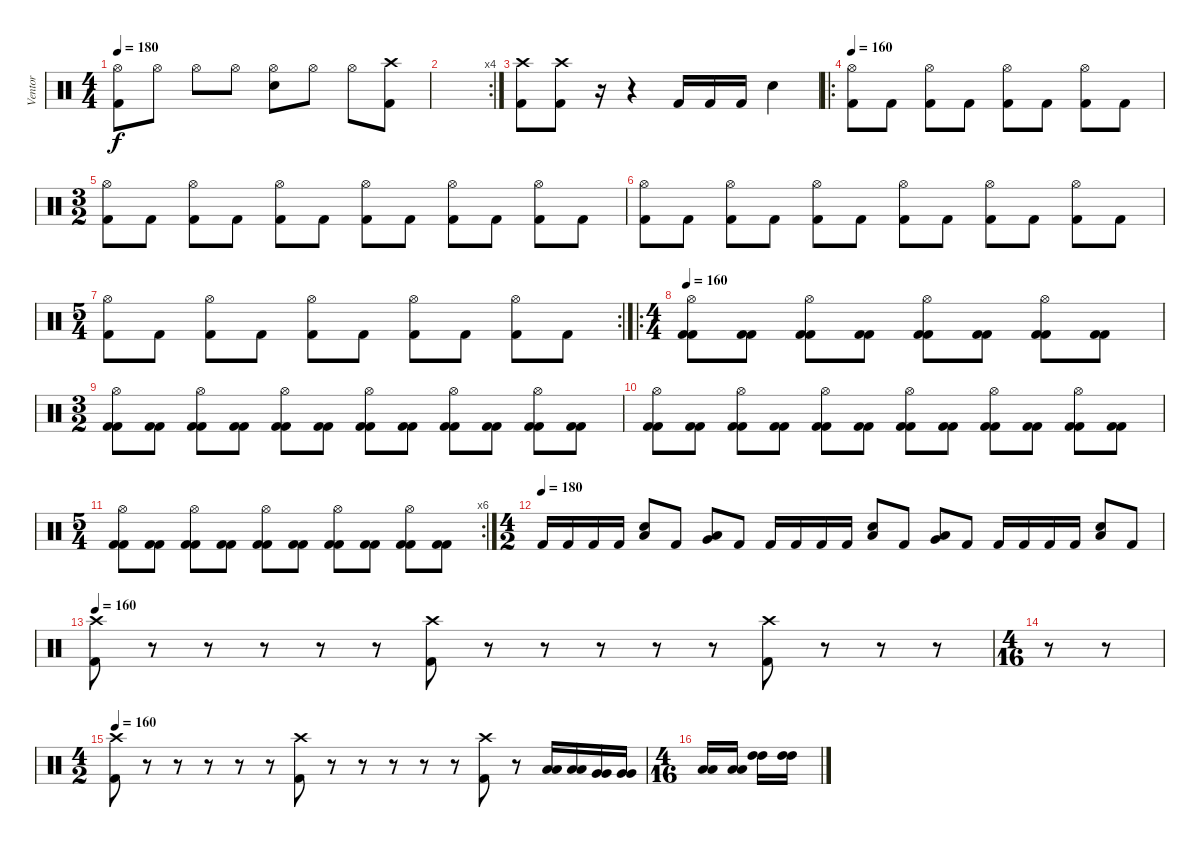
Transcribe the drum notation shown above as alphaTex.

\track ("Ventor" "Ventor") {instrument percussion}
\staff {score}
\articulation defaults
\ts (4 4)
\tempo 180
\clef neutral
\ks c
("Kick (hit) 2" "Hi-Hat (open)").8{dy f} "Hi-Hat (open)".8 "Hi-Hat (open)".8 "Hi-Hat (open)".8 ("Snare (hit) 2" "Hi-Hat (open)").8 "Hi-Hat (open)".8 "Hi-Hat (open)".8 ("Kick (hit) 2" "Crash high (hit)").8 |
\rc 4
|
("Kick (hit) 2" "Crash high (hit)").8 ("Kick (hit) 2" "Crash high (hit)").8 r.16 r.4 "Kick (hit) 2".16 "Kick (hit) 2".16 "Kick (hit) 2".16 "Snare (hit) 2".4 |
\ro
\tempo 160
("Kick (hit) 2" "Hi-Hat (open)").8 "Kick (hit) 2".8 ("Kick (hit) 2" "Hi-Hat (open)").8 "Kick (hit) 2".8 ("Kick (hit) 2" "Hi-Hat (open)").8 "Kick (hit) 2".8 ("Kick (hit) 2" "Hi-Hat (open)").8 "Kick (hit) 2".8 |
\ts (3 2)
("Kick (hit) 2" "Hi-Hat (open)").8 "Kick (hit) 2".8 ("Kick (hit) 2" "Hi-Hat (open)").8 "Kick (hit) 2".8 ("Kick (hit) 2" "Hi-Hat (open)").8 "Kick (hit) 2".8 ("Kick (hit) 2" "Hi-Hat (open)").8 "Kick (hit) 2".8 ("Kick (hit) 2" "Hi-Hat (open)").8 "Kick (hit) 2".8 ("Kick (hit) 2" "Hi-Hat (open)").8 "Kick (hit) 2".8 |
("Kick (hit) 2" "Hi-Hat (open)").8 "Kick (hit) 2".8 ("Kick (hit) 2" "Hi-Hat (open)").8 "Kick (hit) 2".8 ("Kick (hit) 2" "Hi-Hat (open)").8 "Kick (hit) 2".8 ("Kick (hit) 2" "Hi-Hat (open)").8 "Kick (hit) 2".8 ("Kick (hit) 2" "Hi-Hat (open)").8 "Kick (hit) 2".8 ("Kick (hit) 2" "Hi-Hat (open)").8 "Kick (hit) 2".8 |
\rc 2
\ts (5 4)
("Kick (hit) 2" "Hi-Hat (open)").8 "Kick (hit) 2".8 ("Kick (hit) 2" "Hi-Hat (open)").8 "Kick (hit) 2".8 ("Kick (hit) 2" "Hi-Hat (open)").8 "Kick (hit) 2".8 ("Kick (hit) 2" "Hi-Hat (open)").8 "Kick (hit) 2".8 ("Kick (hit) 2" "Hi-Hat (open)").8 "Kick (hit) 2".8 |
\ro
\ts (4 4)
\tempo 160
("Kick (hit) 2" "Kick (hit) 2" "Hi-Hat (open)").8 ("Kick (hit) 2" "Kick (hit) 2").8 ("Kick (hit) 2" "Kick (hit) 2" "Hi-Hat (open)").8 ("Kick (hit) 2" "Kick (hit) 2").8 ("Kick (hit) 2" "Kick (hit) 2" "Hi-Hat (open)").8 ("Kick (hit) 2" "Kick (hit) 2").8 ("Kick (hit) 2" "Kick (hit) 2" "Hi-Hat (open)").8 ("Kick (hit) 2" "Kick (hit) 2").8 |
\ts (3 2)
("Kick (hit) 2" "Kick (hit) 2" "Hi-Hat (open)").8 ("Kick (hit) 2" "Kick (hit) 2").8 ("Kick (hit) 2" "Kick (hit) 2" "Hi-Hat (open)").8 ("Kick (hit) 2" "Kick (hit) 2").8 ("Kick (hit) 2" "Kick (hit) 2" "Hi-Hat (open)").8 ("Kick (hit) 2" "Kick (hit) 2").8 ("Kick (hit) 2" "Kick (hit) 2" "Hi-Hat (open)").8 ("Kick (hit) 2" "Kick (hit) 2").8 ("Kick (hit) 2" "Kick (hit) 2" "Hi-Hat (open)").8 ("Kick (hit) 2" "Kick (hit) 2").8 ("Kick (hit) 2" "Kick (hit) 2" "Hi-Hat (open)").8 ("Kick (hit) 2" "Kick (hit) 2").8 |
("Kick (hit) 2" "Kick (hit) 2" "Hi-Hat (open)").8 ("Kick (hit) 2" "Kick (hit) 2").8 ("Kick (hit) 2" "Kick (hit) 2" "Hi-Hat (open)").8 ("Kick (hit) 2" "Kick (hit) 2").8 ("Kick (hit) 2" "Kick (hit) 2" "Hi-Hat (open)").8 ("Kick (hit) 2" "Kick (hit) 2").8 ("Kick (hit) 2" "Kick (hit) 2" "Hi-Hat (open)").8 ("Kick (hit) 2" "Kick (hit) 2").8 ("Kick (hit) 2" "Kick (hit) 2" "Hi-Hat (open)").8 ("Kick (hit) 2" "Kick (hit) 2").8 ("Kick (hit) 2" "Kick (hit) 2" "Hi-Hat (open)").8 ("Kick (hit) 2" "Kick (hit) 2").8 |
\rc 6
\ts (5 4)
("Kick (hit) 2" "Kick (hit) 2" "Hi-Hat (open)").8 ("Kick (hit) 2" "Kick (hit) 2").8 ("Kick (hit) 2" "Kick (hit) 2" "Hi-Hat (open)").8 ("Kick (hit) 2" "Kick (hit) 2").8 ("Kick (hit) 2" "Kick (hit) 2" "Hi-Hat (open)").8 ("Kick (hit) 2" "Kick (hit) 2").8 ("Kick (hit) 2" "Kick (hit) 2" "Hi-Hat (open)").8 ("Kick (hit) 2" "Kick (hit) 2").8 ("Kick (hit) 2" "Kick (hit) 2" "Hi-Hat (open)").8 ("Kick (hit) 2" "Kick (hit) 2").8 |
\ts (4 2)
\tempo (180)
"Kick (hit) 2".16 "Kick (hit) 2".16 "Kick (hit) 2".16 "Kick (hit) 2".16 ("Low Tom (hit)" "Snare (hit) 2").8 "Kick (hit) 2".8 ("Low Tom (hit)" "Very Low Tom (hit)").8 "Kick (hit) 2".8 "Kick (hit) 2".16 "Kick (hit) 2".16 "Kick (hit) 2".16 "Kick (hit) 2".16 ("Low Tom (hit)" "Snare (hit) 2").8 "Kick (hit) 2".8 ("Low Tom (hit)" "Very Low Tom (hit)").8 "Kick (hit) 2".8 "Kick (hit) 2".16 "Kick (hit) 2".16 "Kick (hit) 2".16 "Kick (hit) 2".16 ("Low Tom (hit)" "Snare (hit) 2").8 "Kick (hit) 2".8 |
\tempo 160
("Kick (hit) 2" "Crash high (hit)").8 r.8 r.8 r.8 r.8 r.8 ("Kick (hit) 2" "Crash high (hit)").8 r.8 r.8 r.8 r.8 r.8 ("Kick (hit) 2" "Crash high (hit)").8 r.8 r.8 r.8 |
\ts (4 16)
r.8 r.8 |
\ts (4 2)
\tempo 150
\tempo 160
("Kick (hit) 2" "Crash high (hit)").8 r.8 r.8 r.8 r.8 r.8 ("Kick (hit) 2" "Crash high (hit)").8 r.8 r.8 r.8 r.8 r.8 ("Kick (hit) 2" "Crash high (hit)").8 r.8 ("Low Floor Tom (hit)" "Low Floor Tom (hit)").16 ("Low Floor Tom (hit)" "Low Floor Tom (hit)").16 ("Very Low Tom (hit)" "Very Low Tom (hit)").16 ("Very Low Tom (hit)" "Very Low Tom (hit)").16 |
\ts (4 16)
("Low Tom (hit)" "Low Tom (hit)").16 ("Low Tom (hit)" "Low Tom (hit)").16 ("High Tom (hit)" "High Tom (hit)").16 ("High Tom (hit)" "High Tom (hit)").16
